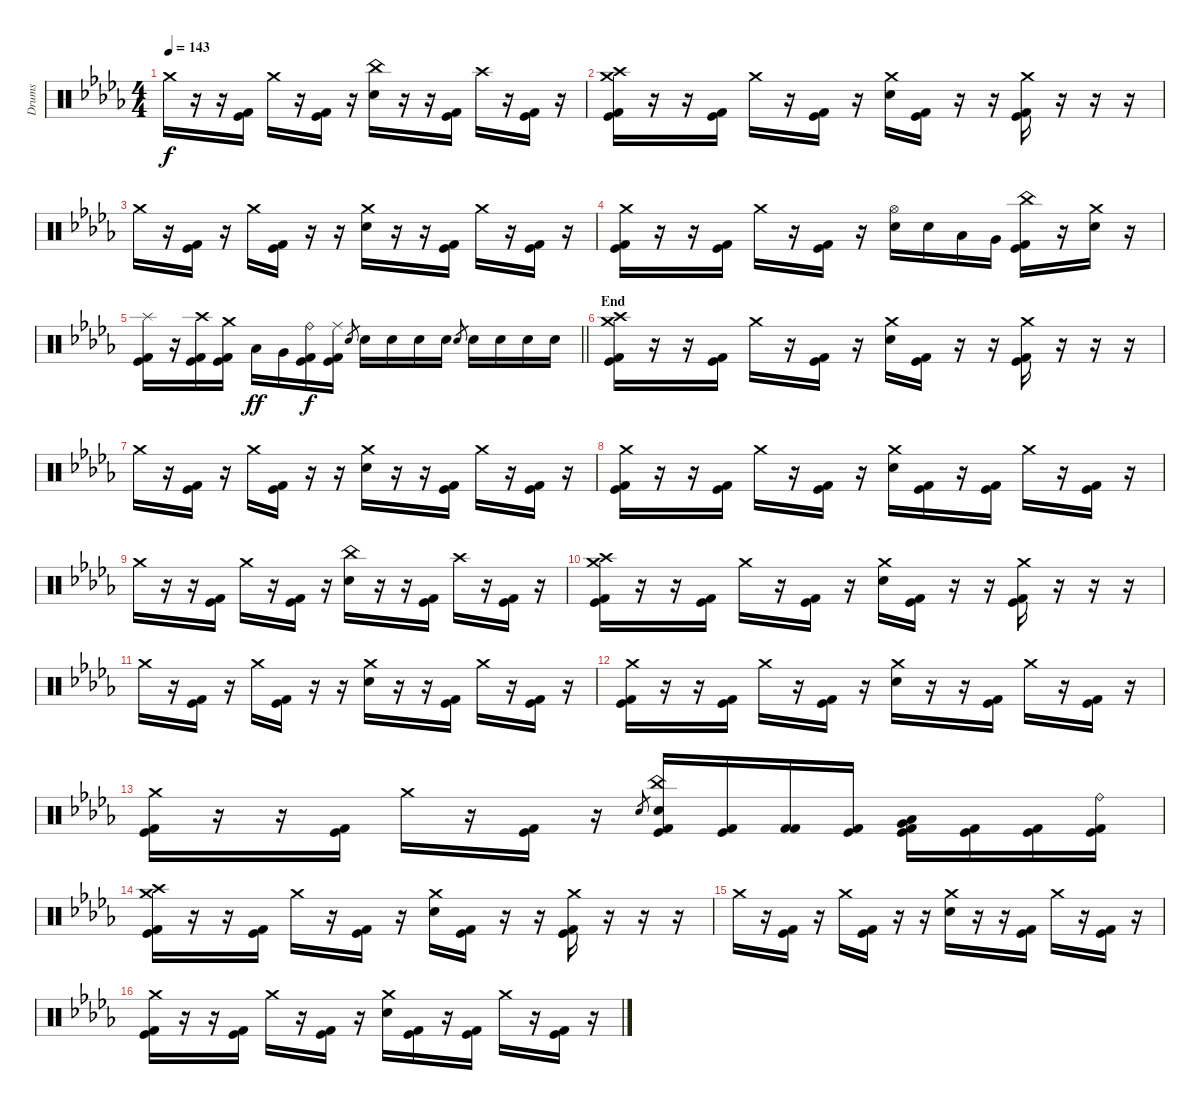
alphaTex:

\track ("Drums" "Drums") {instrument percussion}
\staff {score}
\articulation defaults
\ts (4 4)
\tempo 143
\clef neutral
\ks db "Crash medium (hit)".16{dy f}
r.16 r.16 ("Kick (hit)" "Kick (hit) 2").16 "Crash medium (hit)".16 r.16 ("Kick (hit)" "Kick (hit) 2").16 r.16 ("China (hit)" "Electric Snare (hit)").16 r.16 r.16 ("Kick (hit)" "Kick (hit) 2").16 "Crash high (hit)".16 r.16 ("Kick (hit)" "Kick (hit) 2").16 r.16 |
("Crash medium (hit)" "Crash high (hit)" "Kick (hit)" "Kick (hit) 2").16 r.16 r.16 ("Kick (hit)" "Kick (hit) 2").16 "Crash medium (hit)".16 r.16 ("Kick (hit)" "Kick (hit) 2").16 r.16 ("Crash medium (hit)" "Electric Snare (hit)").16 ("Kick (hit)" "Kick (hit) 2").16 r.16 r.16 ("Crash medium (hit)" "Kick (hit)" "Kick (hit) 2").16 r.16 r.16 r.16 |
"Crash medium (hit)".16 r.16 ("Kick (hit)" "Kick (hit) 2").16 r.16 "Crash medium (hit)".16 ("Kick (hit)" "Kick (hit) 2").16 r.16 r.16 ("Crash medium (hit)" "Electric Snare (hit)").16 r.16 r.16 ("Kick (hit)" "Kick (hit) 2").16 "Crash medium (hit)".16 r.16 ("Kick (hit)" "Kick (hit) 2").16 r.16 |
("Crash medium (hit)" "Kick (hit)" "Kick (hit) 2").16 r.16 r.16 ("Kick (hit)" "Kick (hit) 2").16 "Crash medium (hit)".16 r.16 ("Kick (hit)" "Kick (hit) 2").16 r.16 ("Hi-Hat (open)" "Electric Snare (hit)").16 "Electric Snare (hit)".16 "Low Tom (hit)".16 "Very Low Tom (hit)".16 ("China (hit)" "Kick (hit)" "Kick (hit) 2").16 r.16 ("Crash medium (hit)" "Electric Snare (hit)").16 r.16 |
\barLineRight lightlight
("Splash (hit)" "Kick (hit)" "Kick (hit) 2").16 r.16 ("Crash high (hit)" "Kick (hit)" "Kick (hit) 2").16 ("Crash medium (hit)" "Kick (hit)" "Kick (hit) 2").16 "Low Tom (hit)".16{dy ff} "Very Low Tom (hit)".16 ("Ride (bell)" "Kick (hit)" "Kick (hit) 2").16{dy f} ("Ride (middle)" "Kick (hit)" "Kick (hit) 2").16 "Electric Snare (hit)".8{gr} "Electric Snare (hit)".16 "Electric Snare (hit)".16 "Electric Snare (hit)".16 "Electric Snare (hit)".16 "Electric Snare (hit)".8{gr} "Electric Snare (hit)".16 "Electric Snare (hit)".16 "Electric Snare (hit)".16 "Electric Snare (hit)".16 |
\section ("" "End")
("Crash medium (hit)" "Crash high (hit)" "Kick (hit)" "Kick (hit) 2").16 r.16 r.16 ("Kick (hit)" "Kick (hit) 2").16 "Crash medium (hit)".16 r.16 ("Kick (hit)" "Kick (hit) 2").16 r.16 ("Crash medium (hit)" "Electric Snare (hit)").16 ("Kick (hit)" "Kick (hit) 2").16 r.16 r.16 ("Crash medium (hit)" "Kick (hit)" "Kick (hit) 2").16 r.16 r.16 r.16 |
"Crash medium (hit)".16 r.16 ("Kick (hit)" "Kick (hit) 2").16 r.16 "Crash medium (hit)".16 ("Kick (hit)" "Kick (hit) 2").16 r.16 r.16 ("Crash medium (hit)" "Electric Snare (hit)").16 r.16 r.16 ("Kick (hit)" "Kick (hit) 2").16 "Crash medium (hit)".16 r.16 ("Kick (hit)" "Kick (hit) 2").16 r.16 |
("Crash medium (hit)" "Kick (hit)" "Kick (hit) 2").16 r.16 r.16 ("Kick (hit)" "Kick (hit) 2").16 "Crash medium (hit)".16 r.16 ("Kick (hit)" "Kick (hit) 2").16 r.16 ("Crash medium (hit)" "Electric Snare (hit)").16 ("Kick (hit)" "Kick (hit) 2").16 r.16 ("Kick (hit)" "Kick (hit) 2").16 "Crash medium (hit)".16 r.16 ("Kick (hit)" "Kick (hit) 2").16 r.16 |
"Crash medium (hit)".16 r.16 r.16 ("Kick (hit)" "Kick (hit) 2").16 "Crash medium (hit)".16 r.16 ("Kick (hit)" "Kick (hit) 2").16 r.16 ("China (hit)" "Electric Snare (hit)").16 r.16 r.16 ("Kick (hit)" "Kick (hit) 2").16 "Crash high (hit)".16 r.16 ("Kick (hit)" "Kick (hit) 2").16 r.16 |
("Crash medium (hit)" "Crash high (hit)" "Kick (hit)" "Kick (hit) 2").16 r.16 r.16 ("Kick (hit)" "Kick (hit) 2").16 "Crash medium (hit)".16 r.16 ("Kick (hit)" "Kick (hit) 2").16 r.16 ("Crash medium (hit)" "Electric Snare (hit)").16 ("Kick (hit)" "Kick (hit) 2").16 r.16 r.16 ("Crash medium (hit)" "Kick (hit)" "Kick (hit) 2").16 r.16 r.16 r.16 |
"Crash medium (hit)".16 r.16 ("Kick (hit)" "Kick (hit) 2").16 r.16 "Crash medium (hit)".16 ("Kick (hit)" "Kick (hit) 2").16 r.16 r.16 ("Crash medium (hit)" "Electric Snare (hit)").16 r.16 r.16 ("Kick (hit)" "Kick (hit) 2").16 "Crash medium (hit)".16 r.16 ("Kick (hit)" "Kick (hit) 2").16 r.16 |
("Crash medium (hit)" "Kick (hit)" "Kick (hit) 2").16 r.16 r.16 ("Kick (hit)" "Kick (hit) 2").16 "Crash medium (hit)".16 r.16 ("Kick (hit)" "Kick (hit) 2").16 r.16 ("Crash medium (hit)" "Electric Snare (hit)").16 r.16 r.16 ("Kick (hit)" "Kick (hit) 2").16 "Crash medium (hit)".16 r.16 ("Kick (hit)" "Kick (hit) 2").16 r.16 |
("Crash medium (hit)" "Kick (hit)" "Kick (hit) 2").16 r.16 r.16 ("Kick (hit)" "Kick (hit) 2").16 "Crash medium (hit)".16 r.16 ("Kick (hit)" "Kick (hit) 2").16 r.16 "Electric Snare (hit)".8{gr} ("China (hit)" "Electric Snare (hit)" "Kick (hit)" "Kick (hit) 2").16 ("Kick (hit)" "Kick (hit) 2").16 ("Kick (hit) 2" "Kick (hit) 2").16 ("Kick (hit)" "Kick (hit) 2").16 ("Low Floor Tom (hit)" "Very Low Tom (hit)" "Kick (hit)" "Kick (hit) 2").16 ("Kick (hit)" "Kick (hit) 2").16 ("Kick (hit)" "Kick (hit) 2").16 ("Ride (bell)" "Kick (hit)" "Kick (hit) 2").16 |
("Crash medium (hit)" "Crash high (hit)" "Kick (hit)" "Kick (hit) 2").16{volume 8} r.16 r.16 ("Kick (hit)" "Kick (hit) 2").16 "Crash medium (hit)".16 r.16 ("Kick (hit)" "Kick (hit) 2").16 r.16 ("Crash medium (hit)" "Electric Snare (hit)").16 ("Kick (hit)" "Kick (hit) 2").16 r.16 r.16 ("Crash medium (hit)" "Kick (hit)" "Kick (hit) 2").16 r.16 r.16 r.16 |
"Crash medium (hit)".16 r.16 ("Kick (hit)" "Kick (hit) 2").16 r.16 "Crash medium (hit)".16 ("Kick (hit)" "Kick (hit) 2").16 r.16 r.16 ("Crash medium (hit)" "Electric Snare (hit)").16 r.16 r.16 ("Kick (hit)" "Kick (hit) 2").16 "Crash medium (hit)".16 r.16 ("Kick (hit)" "Kick (hit) 2").16 r.16 |
("Crash medium (hit)" "Kick (hit)" "Kick (hit) 2").16 r.16 r.16 ("Kick (hit)" "Kick (hit) 2").16 "Crash medium (hit)".16 r.16 ("Kick (hit)" "Kick (hit) 2").16 r.16 ("Crash medium (hit)" "Electric Snare (hit)").16 ("Kick (hit)" "Kick (hit) 2").16 r.16 ("Kick (hit)" "Kick (hit) 2").16 "Crash medium (hit)".16 r.16 ("Kick (hit)" "Kick (hit) 2").16 r.16
